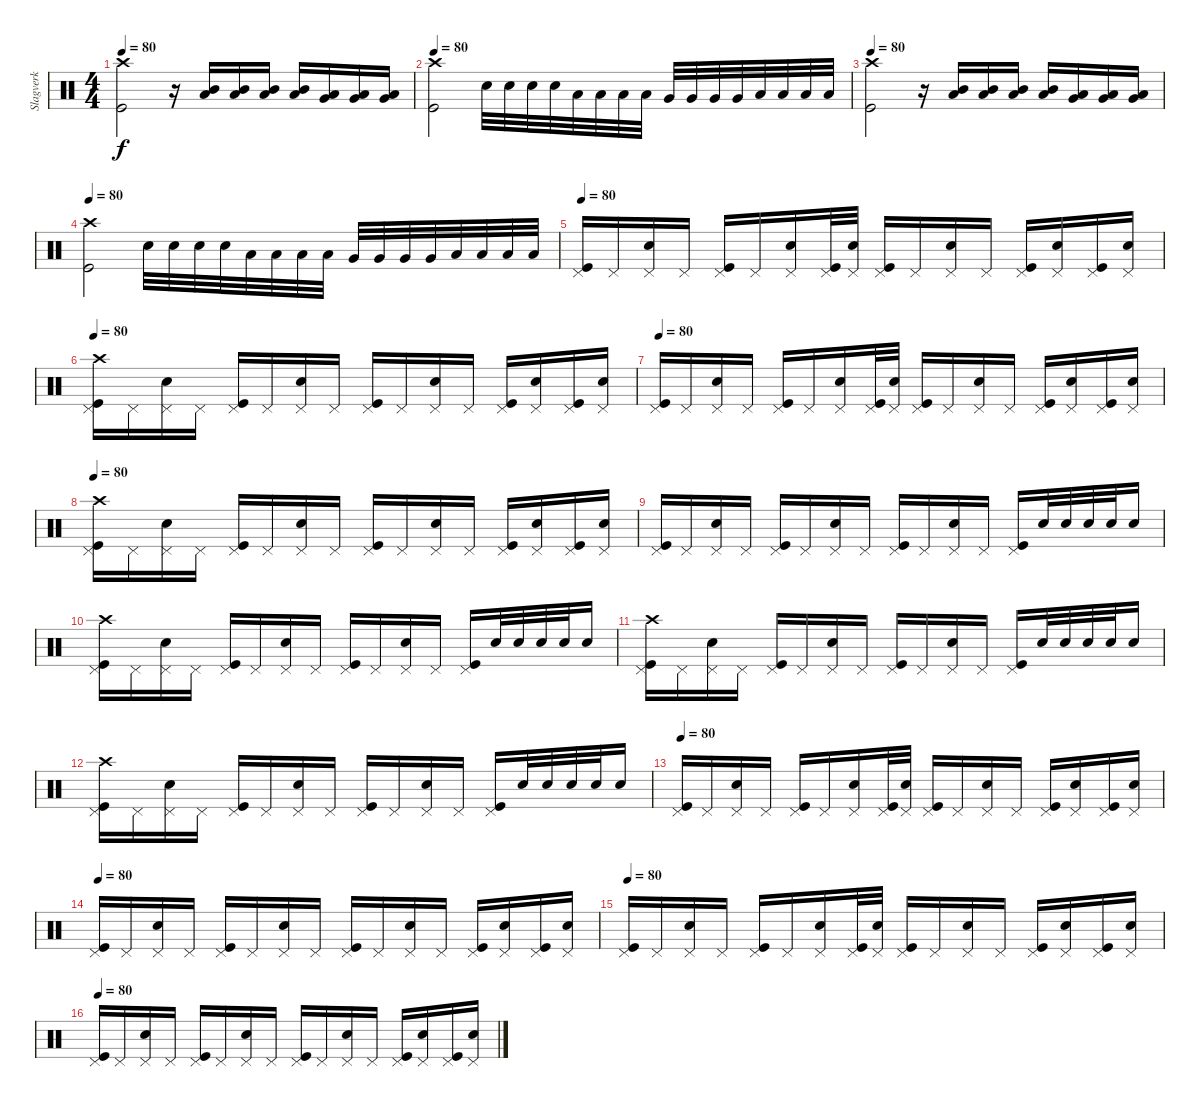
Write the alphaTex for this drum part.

\track ("Slagverk" "Slagverk") {instrument percussion}
\staff {score}
\articulation defaults
\ts (4 4)
\tempo 80
\clef neutral
\ks c
("Crash high (hit)" "Kick (hit)").2{dy f} r.16 ("Low Tom (hit)" "Mid Tom (hit)").16 ("Low Tom (hit)" "Mid Tom (hit)").16 ("Low Tom (hit)" "Mid Tom (hit)").16 ("Low Tom (hit)" "Mid Tom (hit)").16 ("Low Floor Tom (hit)" "Very Low Tom (hit)").16 ("Low Floor Tom (hit)" "Very Low Tom (hit)").16 ("Low Floor Tom (hit)" "Very Low Tom (hit)").16 |
\tempo 80
("Crash high (hit)" "Kick (hit)").2 "Electric Snare (hit)".32 "Electric Snare (hit)".32 "Electric Snare (hit)".32 "Electric Snare (hit)".32 "Low Tom (hit)".32 "Low Tom (hit)".32 "Low Tom (hit)".32 "Low Tom (hit)".32 "Very Low Tom (hit)".32 "Very Low Tom (hit)".32 "Very Low Tom (hit)".32 "Very Low Tom (hit)".32 "Low Floor Tom (hit)".32 "Low Floor Tom (hit)".32 "Low Floor Tom (hit)".32 "Low Floor Tom (hit)".32 |
\tempo 80
("Crash high (hit)" "Kick (hit)").2 r.16 ("Low Tom (hit)" "Mid Tom (hit)").16 ("Low Tom (hit)" "Mid Tom (hit)").16 ("Low Tom (hit)" "Mid Tom (hit)").16 ("Low Tom (hit)" "Mid Tom (hit)").16 ("Low Floor Tom (hit)" "Very Low Tom (hit)").16 ("Low Floor Tom (hit)" "Very Low Tom (hit)").16 ("Low Floor Tom (hit)" "Very Low Tom (hit)").16 |
\tempo 80
("Crash high (hit)" "Kick (hit)").2 "Electric Snare (hit)".32 "Electric Snare (hit)".32 "Electric Snare (hit)".32 "Electric Snare (hit)".32 "Low Tom (hit)".32 "Low Tom (hit)".32 "Low Tom (hit)".32 "Low Tom (hit)".32 "Very Low Tom (hit)".32 "Very Low Tom (hit)".32 "Very Low Tom (hit)".32 "Very Low Tom (hit)".32 "Low Floor Tom (hit)".32 "Low Floor Tom (hit)".32 "Low Floor Tom (hit)".32 "Low Floor Tom (hit)".32 |
\tempo 80
("Pedal Hi-Hat (hit)" "Kick (hit)").16 "Pedal Hi-Hat (hit)".16 ("Pedal Hi-Hat (hit)" "Electric Snare (hit)").16 "Pedal Hi-Hat (hit)".16 ("Pedal Hi-Hat (hit)" "Kick (hit)").16 "Pedal Hi-Hat (hit)".16 ("Pedal Hi-Hat (hit)" "Electric Snare (hit)").16 ("Pedal Hi-Hat (hit)" "Kick (hit)").32 ("Pedal Hi-Hat (hit)" "Electric Snare (hit)").32 ("Pedal Hi-Hat (hit)" "Kick (hit)").16 "Pedal Hi-Hat (hit)".16 ("Pedal Hi-Hat (hit)" "Electric Snare (hit)").16 "Pedal Hi-Hat (hit)".16 ("Pedal Hi-Hat (hit)" "Kick (hit)").16 ("Pedal Hi-Hat (hit)" "Electric Snare (hit)").16 ("Pedal Hi-Hat (hit)" "Kick (hit)").16 ("Pedal Hi-Hat (hit)" "Electric Snare (hit)").16 |
\tempo 80
("Crash high (hit)" "Pedal Hi-Hat (hit)" "Kick (hit)").16 "Pedal Hi-Hat (hit)".16 ("Pedal Hi-Hat (hit)" "Electric Snare (hit)").16 "Pedal Hi-Hat (hit)".16 ("Pedal Hi-Hat (hit)" "Kick (hit)").16 "Pedal Hi-Hat (hit)".16 ("Pedal Hi-Hat (hit)" "Electric Snare (hit)").16 "Pedal Hi-Hat (hit)".16 ("Pedal Hi-Hat (hit)" "Kick (hit)").16 "Pedal Hi-Hat (hit)".16 ("Pedal Hi-Hat (hit)" "Electric Snare (hit)").16 "Pedal Hi-Hat (hit)".16 ("Pedal Hi-Hat (hit)" "Kick (hit)").16 ("Pedal Hi-Hat (hit)" "Electric Snare (hit)").16 ("Pedal Hi-Hat (hit)" "Kick (hit)").16 ("Pedal Hi-Hat (hit)" "Electric Snare (hit)").16 |
\tempo 80
("Pedal Hi-Hat (hit)" "Kick (hit)").16 "Pedal Hi-Hat (hit)".16 ("Pedal Hi-Hat (hit)" "Electric Snare (hit)").16 "Pedal Hi-Hat (hit)".16 ("Pedal Hi-Hat (hit)" "Kick (hit)").16 "Pedal Hi-Hat (hit)".16 ("Pedal Hi-Hat (hit)" "Electric Snare (hit)").16 ("Pedal Hi-Hat (hit)" "Kick (hit)").32 ("Pedal Hi-Hat (hit)" "Electric Snare (hit)").32 ("Pedal Hi-Hat (hit)" "Kick (hit)").16 "Pedal Hi-Hat (hit)".16 ("Pedal Hi-Hat (hit)" "Electric Snare (hit)").16 "Pedal Hi-Hat (hit)".16 ("Pedal Hi-Hat (hit)" "Kick (hit)").16 ("Pedal Hi-Hat (hit)" "Electric Snare (hit)").16 ("Pedal Hi-Hat (hit)" "Kick (hit)").16 ("Pedal Hi-Hat (hit)" "Electric Snare (hit)").16 |
\tempo 80
("Crash high (hit)" "Pedal Hi-Hat (hit)" "Kick (hit)").16 "Pedal Hi-Hat (hit)".16 ("Pedal Hi-Hat (hit)" "Electric Snare (hit)").16 "Pedal Hi-Hat (hit)".16 ("Pedal Hi-Hat (hit)" "Kick (hit)").16 "Pedal Hi-Hat (hit)".16 ("Pedal Hi-Hat (hit)" "Electric Snare (hit)").16 "Pedal Hi-Hat (hit)".16 ("Pedal Hi-Hat (hit)" "Kick (hit)").16 "Pedal Hi-Hat (hit)".16 ("Pedal Hi-Hat (hit)" "Electric Snare (hit)").16 "Pedal Hi-Hat (hit)".16 ("Pedal Hi-Hat (hit)" "Kick (hit)").16 ("Pedal Hi-Hat (hit)" "Electric Snare (hit)").16 ("Pedal Hi-Hat (hit)" "Kick (hit)").16 ("Pedal Hi-Hat (hit)" "Electric Snare (hit)").16 |
("Pedal Hi-Hat (hit)" "Kick (hit)").16 "Pedal Hi-Hat (hit)".16 ("Pedal Hi-Hat (hit)" "Electric Snare (hit)").16 "Pedal Hi-Hat (hit)".16 ("Pedal Hi-Hat (hit)" "Kick (hit)").16 "Pedal Hi-Hat (hit)".16 ("Pedal Hi-Hat (hit)" "Electric Snare (hit)").16 "Pedal Hi-Hat (hit)".16 ("Pedal Hi-Hat (hit)" "Kick (hit)").16 "Pedal Hi-Hat (hit)".16 ("Pedal Hi-Hat (hit)" "Electric Snare (hit)").16 "Pedal Hi-Hat (hit)".16 ("Pedal Hi-Hat (hit)" "Kick (hit)").16 "Electric Snare (hit)".32 "Electric Snare (hit)".32 "Electric Snare (hit)".32 "Electric Snare (hit)".32 "Electric Snare (hit)".16 |
("Crash high (hit)" "Pedal Hi-Hat (hit)" "Kick (hit)").16 "Pedal Hi-Hat (hit)".16 ("Pedal Hi-Hat (hit)" "Electric Snare (hit)").16 "Pedal Hi-Hat (hit)".16 ("Pedal Hi-Hat (hit)" "Kick (hit)").16 "Pedal Hi-Hat (hit)".16 ("Pedal Hi-Hat (hit)" "Electric Snare (hit)").16 "Pedal Hi-Hat (hit)".16 ("Pedal Hi-Hat (hit)" "Kick (hit)").16 "Pedal Hi-Hat (hit)".16 ("Pedal Hi-Hat (hit)" "Electric Snare (hit)").16 "Pedal Hi-Hat (hit)".16 ("Pedal Hi-Hat (hit)" "Kick (hit)").16 "Electric Snare (hit)".32 "Electric Snare (hit)".32 "Electric Snare (hit)".32 "Electric Snare (hit)".32 "Electric Snare (hit)".16 |
("Crash high (hit)" "Pedal Hi-Hat (hit)" "Kick (hit)").16 "Pedal Hi-Hat (hit)".16 ("Pedal Hi-Hat (hit)" "Electric Snare (hit)").16 "Pedal Hi-Hat (hit)".16 ("Pedal Hi-Hat (hit)" "Kick (hit)").16 "Pedal Hi-Hat (hit)".16 ("Pedal Hi-Hat (hit)" "Electric Snare (hit)").16 "Pedal Hi-Hat (hit)".16 ("Pedal Hi-Hat (hit)" "Kick (hit)").16 "Pedal Hi-Hat (hit)".16 ("Pedal Hi-Hat (hit)" "Electric Snare (hit)").16 "Pedal Hi-Hat (hit)".16 ("Pedal Hi-Hat (hit)" "Kick (hit)").16 "Electric Snare (hit)".32 "Electric Snare (hit)".32 "Electric Snare (hit)".32 "Electric Snare (hit)".32 "Electric Snare (hit)".16 |
("Crash high (hit)" "Pedal Hi-Hat (hit)" "Kick (hit)").16 "Pedal Hi-Hat (hit)".16 ("Pedal Hi-Hat (hit)" "Electric Snare (hit)").16 "Pedal Hi-Hat (hit)".16 ("Pedal Hi-Hat (hit)" "Kick (hit)").16 "Pedal Hi-Hat (hit)".16 ("Pedal Hi-Hat (hit)" "Electric Snare (hit)").16 "Pedal Hi-Hat (hit)".16 ("Pedal Hi-Hat (hit)" "Kick (hit)").16 "Pedal Hi-Hat (hit)".16 ("Pedal Hi-Hat (hit)" "Electric Snare (hit)").16 "Pedal Hi-Hat (hit)".16 ("Pedal Hi-Hat (hit)" "Kick (hit)").16 "Electric Snare (hit)".32 "Electric Snare (hit)".32 "Electric Snare (hit)".32 "Electric Snare (hit)".32 "Electric Snare (hit)".16 |
\tempo 80
("Pedal Hi-Hat (hit)" "Kick (hit)").16 "Pedal Hi-Hat (hit)".16 ("Pedal Hi-Hat (hit)" "Electric Snare (hit)").16 "Pedal Hi-Hat (hit)".16 ("Pedal Hi-Hat (hit)" "Kick (hit)").16 "Pedal Hi-Hat (hit)".16 ("Pedal Hi-Hat (hit)" "Electric Snare (hit)").16 ("Pedal Hi-Hat (hit)" "Kick (hit)").32 ("Pedal Hi-Hat (hit)" "Electric Snare (hit)").32 ("Pedal Hi-Hat (hit)" "Kick (hit)").16 "Pedal Hi-Hat (hit)".16 ("Pedal Hi-Hat (hit)" "Electric Snare (hit)").16 "Pedal Hi-Hat (hit)".16 ("Pedal Hi-Hat (hit)" "Kick (hit)").16 ("Pedal Hi-Hat (hit)" "Electric Snare (hit)").16 ("Pedal Hi-Hat (hit)" "Kick (hit)").16 ("Pedal Hi-Hat (hit)" "Electric Snare (hit)").16 |
\tempo 80
("Pedal Hi-Hat (hit)" "Kick (hit)").16 "Pedal Hi-Hat (hit)".16 ("Pedal Hi-Hat (hit)" "Electric Snare (hit)").16 "Pedal Hi-Hat (hit)".16 ("Pedal Hi-Hat (hit)" "Kick (hit)").16 "Pedal Hi-Hat (hit)".16 ("Pedal Hi-Hat (hit)" "Electric Snare (hit)").16 "Pedal Hi-Hat (hit)".16 ("Pedal Hi-Hat (hit)" "Kick (hit)").16 "Pedal Hi-Hat (hit)".16 ("Pedal Hi-Hat (hit)" "Electric Snare (hit)").16 "Pedal Hi-Hat (hit)".16 ("Pedal Hi-Hat (hit)" "Kick (hit)").16 ("Pedal Hi-Hat (hit)" "Electric Snare (hit)").16 ("Pedal Hi-Hat (hit)" "Kick (hit)").16 ("Pedal Hi-Hat (hit)" "Electric Snare (hit)").16 |
\tempo 80
("Pedal Hi-Hat (hit)" "Kick (hit)").16 "Pedal Hi-Hat (hit)".16 ("Pedal Hi-Hat (hit)" "Electric Snare (hit)").16 "Pedal Hi-Hat (hit)".16 ("Pedal Hi-Hat (hit)" "Kick (hit)").16 "Pedal Hi-Hat (hit)".16 ("Pedal Hi-Hat (hit)" "Electric Snare (hit)").16 ("Pedal Hi-Hat (hit)" "Kick (hit)").32 ("Pedal Hi-Hat (hit)" "Electric Snare (hit)").32 ("Pedal Hi-Hat (hit)" "Kick (hit)").16 "Pedal Hi-Hat (hit)".16 ("Pedal Hi-Hat (hit)" "Electric Snare (hit)").16 "Pedal Hi-Hat (hit)".16 ("Pedal Hi-Hat (hit)" "Kick (hit)").16 ("Pedal Hi-Hat (hit)" "Electric Snare (hit)").16 ("Pedal Hi-Hat (hit)" "Kick (hit)").16 ("Pedal Hi-Hat (hit)" "Electric Snare (hit)").16 |
\tempo 80
("Pedal Hi-Hat (hit)" "Kick (hit)").16 "Pedal Hi-Hat (hit)".16 ("Pedal Hi-Hat (hit)" "Electric Snare (hit)").16 "Pedal Hi-Hat (hit)".16 ("Pedal Hi-Hat (hit)" "Kick (hit)").16 "Pedal Hi-Hat (hit)".16 ("Pedal Hi-Hat (hit)" "Electric Snare (hit)").16 "Pedal Hi-Hat (hit)".16 ("Pedal Hi-Hat (hit)" "Kick (hit)").16 "Pedal Hi-Hat (hit)".16 ("Pedal Hi-Hat (hit)" "Electric Snare (hit)").16 "Pedal Hi-Hat (hit)".16 ("Pedal Hi-Hat (hit)" "Kick (hit)").16 ("Pedal Hi-Hat (hit)" "Electric Snare (hit)").16 ("Pedal Hi-Hat (hit)" "Kick (hit)").16 ("Pedal Hi-Hat (hit)" "Electric Snare (hit)").16
